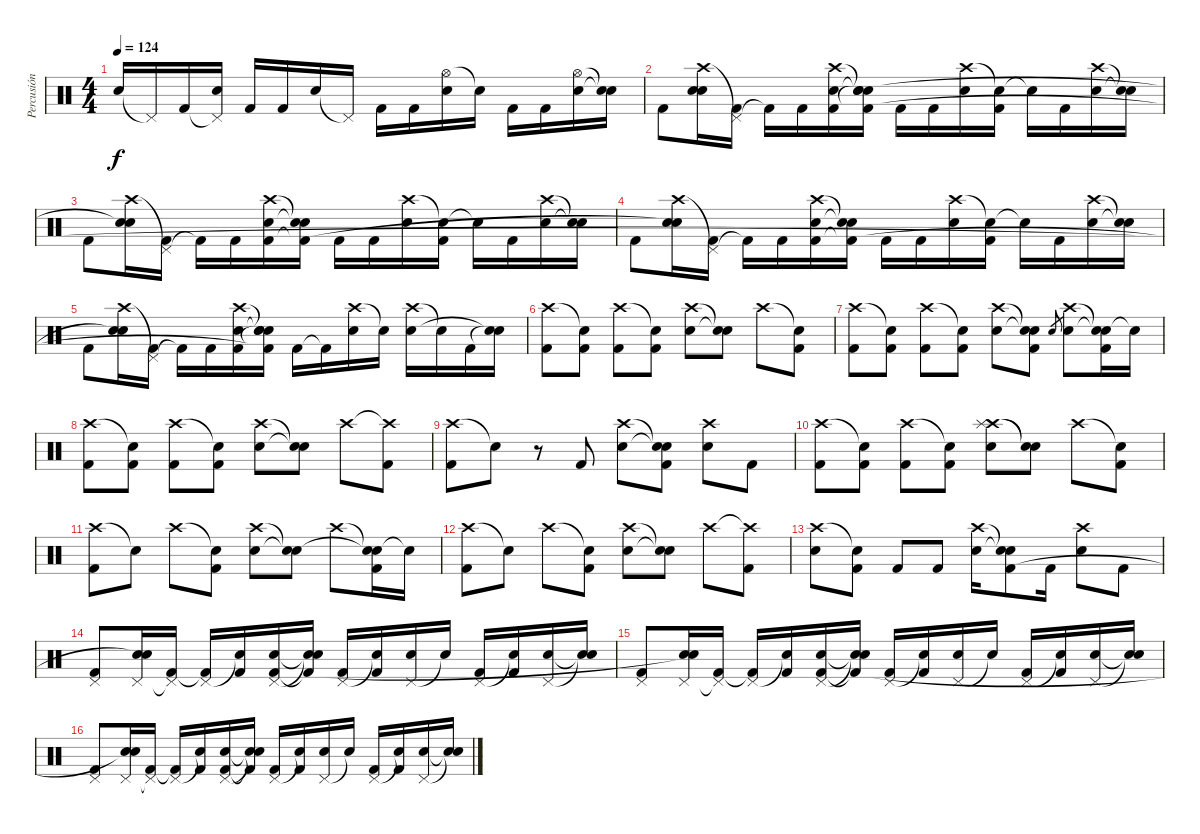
\track ("Percusión" "Percusión") {instrument percussion}
\staff {score}
\articulation defaults
\ts (4 4)
\tempo 124
\clef neutral
\ks c "Snare (hit) 2".16{dy f} "Pedal Hi-Hat (hit)"{t}.16 "Kick (hit) 2".16
("Pedal Hi-Hat (hit)"{t} "Snare (hit) 2").16 "Kick (hit) 2".16 "Kick (hit) 2".16 "Snare (hit) 2".16 "Pedal Hi-Hat (hit)"{t}.16 "Kick (hit) 2".16 "Kick (hit) 2".16 ("Hi-Hat (open)" "Snare (hit) 2").16 "Snare (hit)"{t}.16 "Kick (hit) 2".16 "Kick (hit) 2".16 ("Hi-Hat (open)" "Snare (hit) 2").16 ("Snare (hit)"{t} "Snare (hit)"{t}).16 |
"Kick (hit) 2".8 ("Crash high (hit)" "Snare (hit) 2" "Snare (hit)"{t}).16 ("Pedal Hi-Hat (hit)"{t} "Kick (hit) 2").16 "Kick (hit) 2"{t}.16 "Kick (hit) 2".16 ("Crash high (hit)" "Snare (hit) 2" "Kick (hit) 2").16 ("Snare (hit)"{t} "Snare (hit)"{t} "Snare (hit)"{t} "Kick (hit) 2").16 "Kick (hit) 2".16 "Kick (hit) 2".16 ("Crash high (hit)" "Snare (hit) 2").16 ("Snare (hit)"{t} "Kick (hit) 2").16 "Snare (hit)"{t}.16 "Kick (hit) 2".16 ("Crash high (hit)" "Snare (hit) 2").16 ("Snare (hit)"{t} "Snare (hit)"{t}).16 |
"Kick (hit) 2".8 ("Crash high (hit)" "Snare (hit) 2" "Snare (hit)"{t}).16 ("Pedal Hi-Hat (hit)"{t} "Kick (hit) 2").16 "Kick (hit) 2"{t}.16 "Kick (hit) 2".16 ("Crash high (hit)" "Snare (hit) 2" "Kick (hit) 2").16 ("Snare (hit)"{t} "Snare (hit)"{t} "Kick (hit) 2"{t}).16 "Kick (hit) 2".16 "Kick (hit) 2".16 ("Crash high (hit)" "Snare (hit) 2").16 ("Snare (hit)"{t} "Kick (hit) 2").16 "Snare (hit)"{t}.16 "Kick (hit) 2".16 ("Crash high (hit)" "Snare (hit) 2").16 ("Snare (hit)"{t} "Snare (hit)"{t}).16 |
"Kick (hit) 2".8 ("Crash high (hit)" "Snare (hit) 2" "Snare (hit)"{t}).16 ("Pedal Hi-Hat (hit)"{t} "Kick (hit) 2").16 "Kick (hit) 2"{t}.16 "Kick (hit) 2".16 ("Crash high (hit)" "Snare (hit) 2" "Kick (hit) 2").16 ("Snare (hit)"{t} "Snare (hit)"{t} "Kick (hit) 2"{t}).16 "Kick (hit) 2".16 "Kick (hit) 2".16 ("Crash high (hit)" "Snare (hit) 2").16 ("Snare (hit)"{t} "Kick (hit) 2").16 "Snare (hit)"{t}.16 "Kick (hit) 2".16 ("Crash high (hit)" "Snare (hit) 2").16 ("Snare (hit)"{t} "Snare (hit)"{t}).16 |
"Kick (hit) 2".8 ("Crash high (hit)" "Snare (hit) 2" "Snare (hit)"{t}).16 ("Pedal Hi-Hat (hit)"{t} "Kick (hit) 2").16 "Kick (hit) 2"{t}.16 "Kick (hit) 2".16 ("Crash high (hit)" "Snare (hit) 2" "Kick (hit) 2").16 ("Snare (hit)"{t} "Snare (hit)"{t} "Snare (hit)"{t} "Kick (hit) 2"{t}).16 "Kick (hit) 2".16 "Kick (hit) 2"{t}.16 ("Crash high (hit)" "Snare (hit) 2").16 "Snare (hit)"{t}.16 ("Crash high (hit)" "Snare (hit) 2").16 "Snare (hit)"{t}.16 "Kick (hit) 2".16 ("Snare (hit)"{t} "Snare (hit)"{t}).16 |
("Crash high (hit)" "Kick (hit) 2").8 ("Snare (hit)"{t} "Kick (hit) 2").8 ("Crash high (hit)" "Kick (hit) 2").8 ("Snare (hit)"{t} "Kick (hit) 2").8 ("Crash high (hit)" "Snare (hit) 2").8 ("Snare (hit)"{t} "Snare (hit)"{t}).8 "Crash high (hit)".8 ("Snare (hit)"{t} "Kick (hit) 2").8 |
("Crash high (hit)" "Kick (hit) 2").8 ("Snare (hit)"{t} "Kick (hit) 2").8 ("Crash high (hit)" "Kick (hit) 2").8 ("Snare (hit)"{t} "Kick (hit) 2").8 ("Crash high (hit)" "Snare (hit) 2").8 ("Snare (hit)"{t} "Snare (hit) 2"{t} "Kick (hit) 2").8 "Snare (hit) 2"{sl}.8{gr} ("Crash high (hit)" "Snare (hit) 2").8 ("Snare (hit)"{t} "Snare (hit) 2"{t} "Kick (hit) 2").16 "Snare (hit)"{t}.16 |
("Crash high (hit)" "Kick (hit) 2").8 ("Snare (hit)"{t} "Kick (hit) 2").8 ("Crash high (hit)" "Kick (hit) 2").8 ("Snare (hit)"{t} "Kick (hit) 2").8 ("Crash high (hit)" "Snare (hit) 2").8 ("Snare (hit)"{t} "Snare (hit)"{t}).8 "Crash high (hit)".8 ("Crash high (hit)"{t} "Kick (hit) 2").8 |
("Crash high (hit)" "Kick (hit) 2").8 "Snare (hit)"{t}.8 r.8 "Kick (hit) 2".8 ("Crash high (hit)" "Snare (hit) 2").8 ("Snare (hit)"{t} "Snare (hit)"{t} "Kick (hit) 2").8 ("Crash high (hit)" "Snare (hit) 2").8 "Kick (hit) 2".8 |
("Crash high (hit)" "Kick (hit) 2").8 ("Snare (hit)"{t} "Kick (hit) 2").8 ("Crash high (hit)" "Kick (hit) 2").8 ("Snare (hit)"{t} "Kick (hit) 2").8 ("Crash high (hit)" "Splash (hit)" "Snare (hit) 2").8 ("Snare (hit)"{t} "Snare (hit)"{t}).8 "Crash high (hit)".8 ("Snare (hit)"{t} "Kick (hit) 2").8 |
("Crash high (hit)" "Kick (hit) 2").8 "Snare (hit)"{t}.8 "Crash high (hit)".8 ("Snare (hit)"{t} "Kick (hit) 2").8 ("Crash high (hit)" "Snare (hit) 2").8 ("Snare (hit)"{t} "Snare (hit) 2"{t}).8 "Crash high (hit)".8 ("Snare (hit)"{t} "Snare (hit) 2"{t} "Kick (hit) 2").16 "Snare (hit)"{t}.16 |
("Crash high (hit)" "Kick (hit) 2").8 "Snare (hit)"{t}.8 "Crash high (hit)".8 ("Snare (hit)"{t} "Kick (hit) 2").8 ("Crash high (hit)" "Snare (hit) 2").8 ("Snare (hit)"{t} "Snare (hit)"{t}).8 "Crash high (hit)".8 ("Crash high (hit)"{t} "Kick (hit) 2").8 |
("Crash high (hit)" "Snare (hit) 2").8 ("Snare (hit)"{t} "Kick (hit) 2").8 "Kick (hit) 2".8 "Kick (hit) 2".8 ("Crash high (hit)" "Snare (hit) 2").16 ("Snare (hit)"{t} "Snare (hit)"{t} "Kick (hit) 2").8 "Kick (hit) 2".16 ("Crash high (hit)" "Snare (hit) 2").8 "Kick (hit) 2".8 |
("Pedal Hi-Hat (hit)" "Kick (hit) 2").8 ("Pedal Hi-Hat (hit)" "Snare (hit) 2" "Snare (hit)"{t}).16 ("Pedal Hi-Hat (hit)"{t} "Kick (hit) 2").16 ("Pedal Hi-Hat (hit)" "Kick (hit) 2"{t}).16 ("Snare (hit)"{t} "Kick (hit) 2").16 ("Pedal Hi-Hat (hit)" "Snare (hit) 2" "Kick (hit) 2").16 ("Snare (hit)"{t} "Snare (hit)"{t} "Kick (hit) 2"{t}).16 ("Pedal Hi-Hat (hit)" "Kick (hit) 2").16 ("Snare (hit)"{t} "Kick (hit) 2").16 ("Pedal Hi-Hat (hit)" "Snare (hit) 2").16 "Snare (hit)"{t}.16 ("Pedal Hi-Hat (hit)" "Kick (hit) 2").16 ("Snare (hit)"{t} "Kick (hit) 2").16 ("Pedal Hi-Hat (hit)" "Snare (hit) 2").16 ("Snare (hit)"{t} "Snare (hit)"{t}).16 |
("Pedal Hi-Hat (hit)" "Kick (hit) 2").8 ("Pedal Hi-Hat (hit)" "Snare (hit) 2" "Snare (hit)"{t}).16 ("Pedal Hi-Hat (hit)"{t} "Kick (hit) 2").16 ("Pedal Hi-Hat (hit)" "Kick (hit) 2"{t}).16 ("Snare (hit)"{t} "Kick (hit) 2").16 ("Pedal Hi-Hat (hit)" "Snare (hit) 2" "Kick (hit) 2").16 ("Snare (hit)"{t} "Snare (hit)"{t} "Kick (hit) 2"{t}).16 ("Pedal Hi-Hat (hit)" "Kick (hit) 2").16 ("Snare (hit)"{t} "Kick (hit) 2").16 ("Pedal Hi-Hat (hit)" "Snare (hit) 2").16 "Snare (hit)"{t}.16 ("Pedal Hi-Hat (hit)" "Kick (hit) 2").16 ("Snare (hit)"{t} "Kick (hit) 2").16 ("Pedal Hi-Hat (hit)" "Snare (hit) 2").16 ("Snare (hit)"{t} "Snare (hit)"{t}).16 |
("Pedal Hi-Hat (hit)" "Kick (hit) 2").8 ("Pedal Hi-Hat (hit)" "Snare (hit) 2" "Snare (hit)"{t}).16 ("Pedal Hi-Hat (hit)"{t} "Kick (hit) 2").16 ("Pedal Hi-Hat (hit)" "Kick (hit) 2"{t}).16 ("Snare (hit)"{t} "Kick (hit) 2").16 ("Pedal Hi-Hat (hit)" "Snare (hit) 2" "Kick (hit) 2").16 ("Snare (hit)"{t} "Snare (hit)"{t} "Kick (hit) 2"{t}).16 ("Pedal Hi-Hat (hit)" "Kick (hit) 2").16 ("Snare (hit)"{t} "Kick (hit) 2").16 ("Pedal Hi-Hat (hit)" "Snare (hit) 2").16 "Snare (hit)"{t}.16 ("Pedal Hi-Hat (hit)" "Kick (hit) 2").16 ("Snare (hit)"{t} "Kick (hit) 2").16 ("Pedal Hi-Hat (hit)" "Snare (hit) 2").16 ("Snare (hit)"{t} "Snare (hit)"{t}).16
